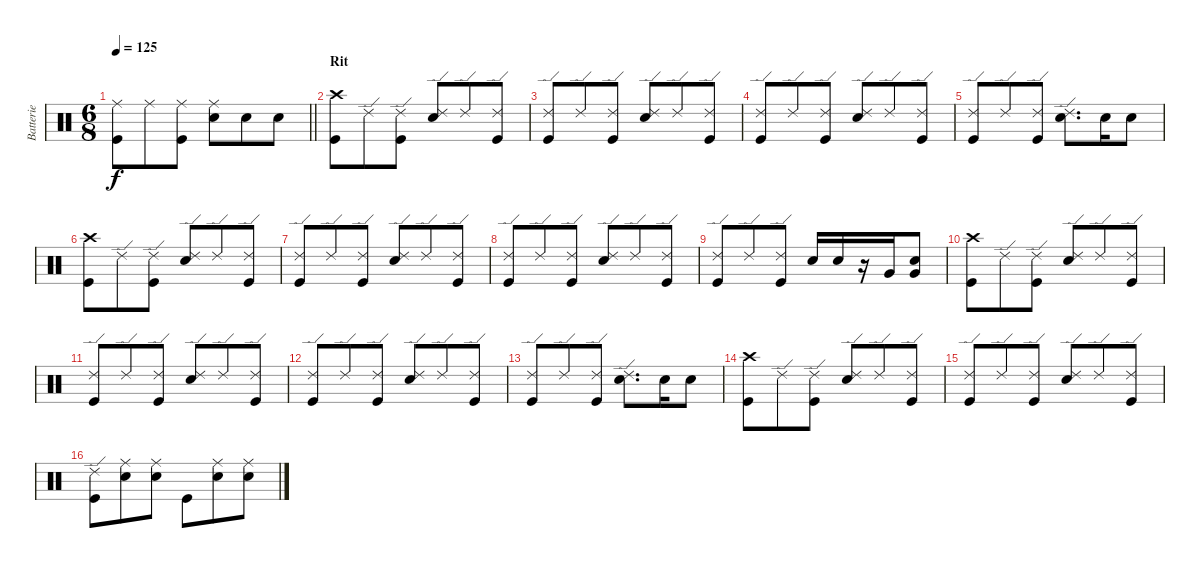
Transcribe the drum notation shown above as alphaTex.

\track ("Batterie" "Batterie") {instrument percussion}
\staff {score}
\articulation defaults
\ts (6 8)
\tempo 125
\clef neutral
\barLineRight lightlight
\ks c
("Ride (middle)" "Kick (hit)").8{dy f} "Ride (middle)".8 ("Ride (middle)" "Kick (hit)").8 ("Ride (middle)" "Snare (hit) 2").8 "Snare (hit) 2".8 "Snare (hit) 2".8 |
\section ("" "Rit")
("Crash high (hit)" "Kick (hit)").8 "Ride (edge) 2".8 ("Ride (edge) 2" "Kick (hit)").8 ("Ride (edge) 2" "Snare (hit) 2").8 "Ride (edge) 2".8 ("Ride (edge) 2" "Kick (hit)").8 |
("Ride (edge) 2" "Kick (hit)").8 "Ride (edge) 2".8 ("Ride (edge) 2" "Kick (hit)").8 ("Ride (edge) 2" "Snare (hit) 2").8 "Ride (edge) 2".8 ("Ride (edge) 2" "Kick (hit)").8 |
("Ride (edge) 2" "Kick (hit)").8 "Ride (edge) 2".8 ("Ride (edge) 2" "Kick (hit)").8 ("Ride (edge) 2" "Snare (hit) 2").8 "Ride (edge) 2".8 ("Ride (edge) 2" "Kick (hit)").8 |
("Ride (edge) 2" "Kick (hit)").8 "Ride (edge) 2".8 ("Ride (edge) 2" "Kick (hit)").8 ("Ride (edge) 2" "Snare (hit) 2").8{d} "Snare (hit) 2".16 "Snare (hit) 2".8 |
("Crash high (hit)" "Kick (hit)").8 "Ride (edge) 2".8 ("Ride (edge) 2" "Kick (hit)").8 ("Ride (edge) 2" "Snare (hit) 2").8 "Ride (edge) 2".8 ("Ride (edge) 2" "Kick (hit)").8 |
("Ride (edge) 2" "Kick (hit)").8 "Ride (edge) 2".8 ("Ride (edge) 2" "Kick (hit)").8 ("Ride (edge) 2" "Snare (hit) 2").8 "Ride (edge) 2".8 ("Ride (edge) 2" "Kick (hit)").8 |
("Ride (edge) 2" "Kick (hit)").8 "Ride (edge) 2".8 ("Ride (edge) 2" "Kick (hit)").8 ("Ride (edge) 2" "Snare (hit) 2").8 "Ride (edge) 2".8 ("Ride (edge) 2" "Kick (hit)").8 |
("Ride (edge) 2" "Kick (hit)").8 "Ride (edge) 2".8 ("Ride (edge) 2" "Kick (hit)").8 "Snare (hit) 2".16 "Snare (hit) 2".16 r.16 "Very Low Tom (hit)".16 ("Snare (hit) 2" "Very Low Tom (hit)").8 |
("Crash high (hit)" "Kick (hit)").8 "Ride (edge) 2".8 ("Ride (edge) 2" "Kick (hit)").8 ("Ride (edge) 2" "Snare (hit) 2").8 "Ride (edge) 2".8 ("Ride (edge) 2" "Kick (hit)").8 |
("Ride (edge) 2" "Kick (hit)").8 "Ride (edge) 2".8 ("Ride (edge) 2" "Kick (hit)").8 ("Ride (edge) 2" "Snare (hit) 2").8 "Ride (edge) 2".8 ("Ride (edge) 2" "Kick (hit)").8 |
("Ride (edge) 2" "Kick (hit)").8 "Ride (edge) 2".8 ("Ride (edge) 2" "Kick (hit)").8 ("Ride (edge) 2" "Snare (hit) 2").8 "Ride (edge) 2".8 ("Ride (edge) 2" "Kick (hit)").8 |
("Ride (edge) 2" "Kick (hit)").8 "Ride (edge) 2".8 ("Ride (edge) 2" "Kick (hit)").8 ("Ride (edge) 2" "Snare (hit) 2").8{d} "Snare (hit) 2".16 "Snare (hit) 2".8 |
("Crash high (hit)" "Kick (hit)").8 "Ride (edge) 2".8 ("Ride (edge) 2" "Kick (hit)").8 ("Ride (edge) 2" "Snare (hit) 2").8 "Ride (edge) 2".8 ("Ride (edge) 2" "Kick (hit)").8 |
("Ride (edge) 2" "Kick (hit)").8 "Ride (edge) 2".8 ("Ride (edge) 2" "Kick (hit)").8 ("Ride (edge) 2" "Snare (hit) 2").8 "Ride (edge) 2".8 ("Ride (edge) 2" "Kick (hit)").8 |
("Ride (edge) 2" "Kick (hit)").8 ("Ride (middle)" "Snare (hit) 2").8 ("Ride (middle)" "Snare (hit) 2").8 "Kick (hit)".8 ("Ride (middle)" "Snare (hit) 2").8 ("Ride (middle)" "Snare (hit) 2").8
